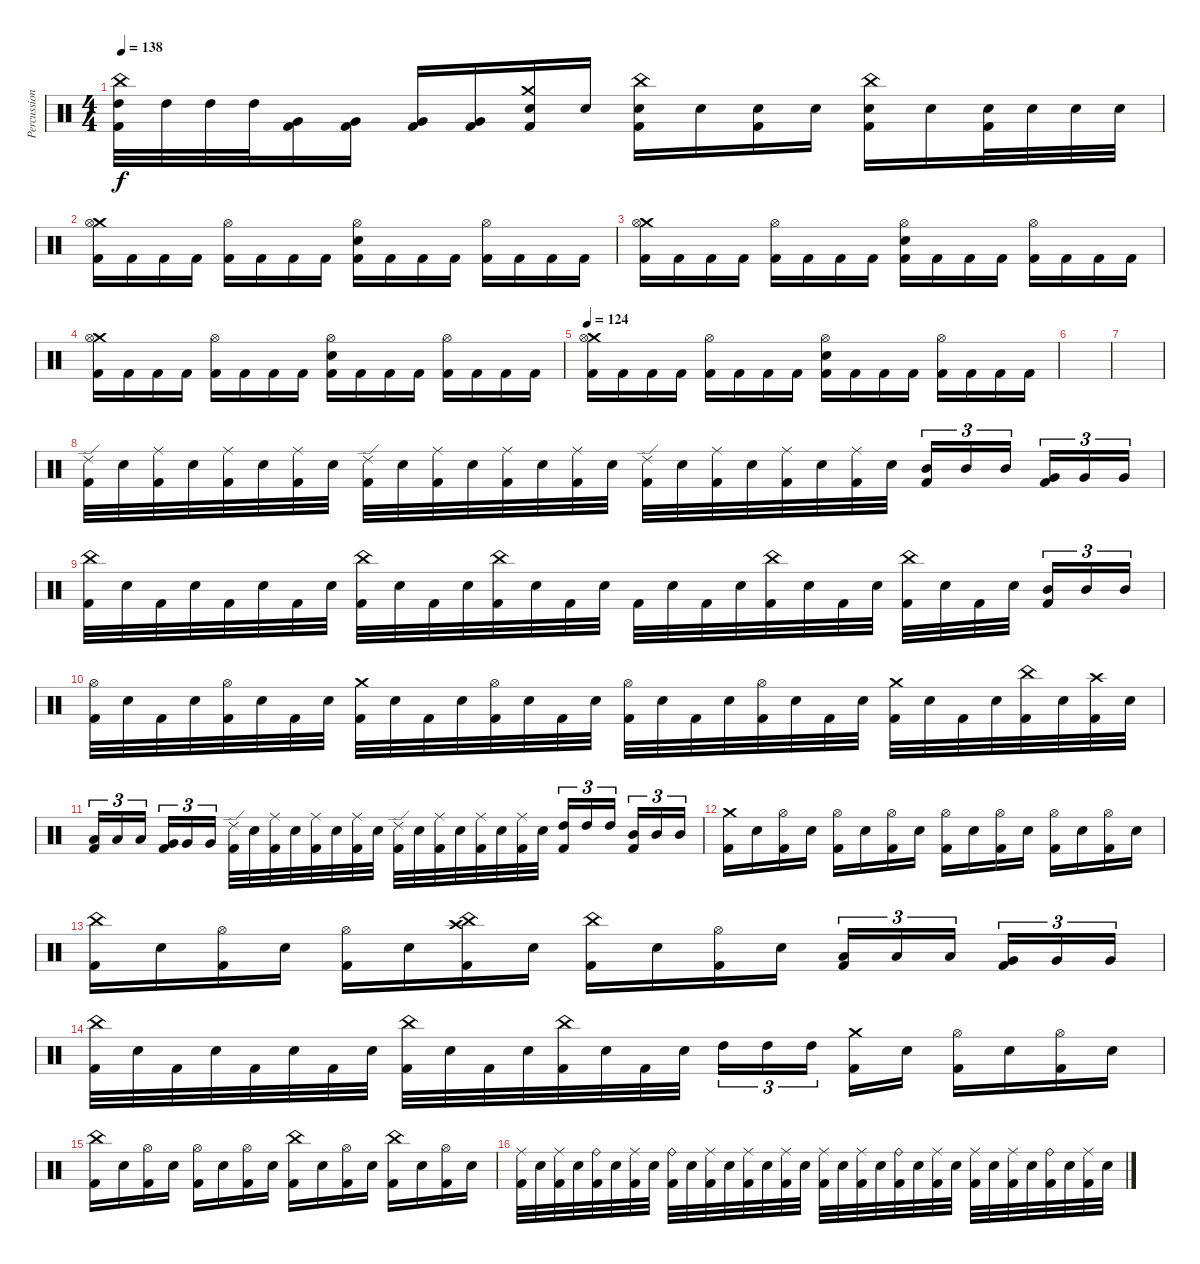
\track ("Percussion" "Percussion") {instrument percussion}
\staff {score}
\articulation defaults
\ts (4 4)
\tempo 138
\clef neutral
\ks c
("China (hit)" "High Tom (hit)" "Kick (hit) 2").32{dy f} "High Tom (hit)".32 "High Tom (hit)".32 "High Tom (hit)".32 ("Very Low Tom (hit)" "Kick (hit) 2").16 ("Very Low Tom (hit)" "Kick (hit) 2").16 ("Very Low Tom (hit)" "Kick (hit) 2").16 ("Very Low Tom (hit)" "Kick (hit) 2").16 ("Crash medium (hit)" "Electric Snare (hit)" "Kick (hit) 2").16 "Electric Snare (hit)".16 ("China (hit)" "Electric Snare (hit)" "Kick (hit) 2").16 "Electric Snare (hit)".16 ("Electric Snare (hit)" "Kick (hit) 2").16 "Electric Snare (hit)".16 ("China (hit)" "Electric Snare (hit)" "Kick (hit) 2").16 "Electric Snare (hit)".16 ("Electric Snare (hit)" "Kick (hit) 2").32 "Electric Snare (hit)".32 "Electric Snare (hit)".32 "Electric Snare (hit)".32 |
("Crash medium (hit)" "Hi-Hat (open)" "Kick (hit) 2").16 "Kick (hit) 2".16 "Kick (hit) 2".16 "Kick (hit) 2".16 ("Hi-Hat (open)" "Kick (hit) 2").16 "Kick (hit) 2".16 "Kick (hit) 2".16 "Kick (hit) 2".16 ("Hi-Hat (open)" "Electric Snare (hit)" "Kick (hit) 2").16 "Kick (hit) 2".16 "Kick (hit) 2".16 "Kick (hit) 2".16 ("Hi-Hat (open)" "Kick (hit) 2").16 "Kick (hit) 2".16 "Kick (hit) 2".16 "Kick (hit) 2".16 |
("Crash medium (hit)" "Hi-Hat (open)" "Kick (hit) 2").16 "Kick (hit) 2".16 "Kick (hit) 2".16 "Kick (hit) 2".16 ("Hi-Hat (open)" "Kick (hit) 2").16 "Kick (hit) 2".16 "Kick (hit) 2".16 "Kick (hit) 2".16 ("Hi-Hat (open)" "Electric Snare (hit)" "Kick (hit) 2").16 "Kick (hit) 2".16 "Kick (hit) 2".16 "Kick (hit) 2".16 ("Hi-Hat (open)" "Kick (hit) 2").16 "Kick (hit) 2".16 "Kick (hit) 2".16 "Kick (hit) 2".16 |
("Crash medium (hit)" "Hi-Hat (open)" "Kick (hit) 2").16 "Kick (hit) 2".16 "Kick (hit) 2".16 "Kick (hit) 2".16 ("Hi-Hat (open)" "Kick (hit) 2").16 "Kick (hit) 2".16 "Kick (hit) 2".16 "Kick (hit) 2".16 ("Hi-Hat (open)" "Electric Snare (hit)" "Kick (hit) 2").16 "Kick (hit) 2".16 "Kick (hit) 2".16 "Kick (hit) 2".16 ("Hi-Hat (open)" "Kick (hit) 2").16 "Kick (hit) 2".16 "Kick (hit) 2".16 "Kick (hit) 2".16 |
\tempo 124
("Crash medium (hit)" "Hi-Hat (open)" "Kick (hit) 2").16 "Kick (hit) 2".16 "Kick (hit) 2".16 "Kick (hit) 2".16 ("Hi-Hat (open)" "Kick (hit) 2").16 "Kick (hit) 2".16 "Kick (hit) 2".16 "Kick (hit) 2".16 ("Hi-Hat (open)" "Electric Snare (hit)" "Kick (hit) 2").16 "Kick (hit) 2".16 "Kick (hit) 2".16 "Kick (hit) 2".16 ("Hi-Hat (open)" "Kick (hit) 2").16 "Kick (hit) 2".16 "Kick (hit) 2".16 "Kick (hit) 2".16 |
|
|
("Ride (edge) 2" "Kick (hit) 2").32 "Electric Snare (hit)".32 ("Ride (middle)" "Kick (hit) 2").32 "Electric Snare (hit)".32 ("Ride (middle)" "Kick (hit) 2").32 "Electric Snare (hit)".32 ("Ride (middle)" "Kick (hit) 2").32 "Electric Snare (hit)".32 ("Ride (edge) 2" "Kick (hit) 2").32 "Electric Snare (hit)".32 ("Ride (middle)" "Kick (hit) 2").32 "Electric Snare (hit)".32 ("Ride (middle)" "Kick (hit) 2").32 "Electric Snare (hit)".32 ("Ride (middle)" "Kick (hit) 2").32 "Electric Snare (hit)".32 ("Ride (edge) 2" "Kick (hit) 2").32 "Electric Snare (hit)".32 ("Ride (middle)" "Kick (hit) 2").32 "Electric Snare (hit)".32 ("Ride (middle)" "Kick (hit) 2").32 "Electric Snare (hit)".32 ("Ride (middle)" "Kick (hit) 2").32 "Electric Snare (hit)".32 ("Mid Tom (hit)" "Kick (hit) 2").16{tu (3 2)} "Mid Tom (hit)".16{tu (3 2)} "Mid Tom (hit)".16{tu (3 2) beam splitsecondary} ("Very Low Tom (hit)" "Kick (hit) 2").16{tu (3 2)} "Very Low Tom (hit)".16{tu (3 2)} "Very Low Tom (hit)".16{tu (3 2)} |
("China (hit)" "Kick (hit) 2").32 "Electric Snare (hit)".32 "Kick (hit) 2".32 "Electric Snare (hit)".32 "Kick (hit) 2".32 "Electric Snare (hit)".32 "Kick (hit) 2".32 "Electric Snare (hit)".32 ("China (hit)" "Kick (hit) 2").32 "Electric Snare (hit)".32 "Kick (hit) 2".32 "Electric Snare (hit)".32 ("China (hit)" "Kick (hit) 2").32 "Electric Snare (hit)".32 "Kick (hit) 2".32 "Electric Snare (hit)".32 "Kick (hit) 2".32 "Electric Snare (hit)".32 "Kick (hit) 2".32 "Electric Snare (hit)".32 ("China (hit)" "Kick (hit) 2").32 "Electric Snare (hit)".32 "Kick (hit) 2".32 "Electric Snare (hit)".32 ("China (hit)" "Kick (hit) 2").32 "Electric Snare (hit)".32 "Kick (hit) 2".32 "Electric Snare (hit)".32{beam splitsecondary} ("Mid Tom (hit)" "Kick (hit) 2").16{tu (3 2)} "Mid Tom (hit)".16{tu (3 2)} "Mid Tom (hit)".16{tu (3 2)} |
("Hi-Hat (open)" "Kick (hit) 2").32 "Electric Snare (hit)".32 "Kick (hit) 2".32 "Electric Snare (hit)".32 ("Hi-Hat (open)" "Kick (hit) 2").32 "Electric Snare (hit)".32 "Kick (hit) 2".32 "Electric Snare (hit)".32 ("Crash medium (hit)" "Kick (hit) 2").32 "Electric Snare (hit)".32 "Kick (hit) 2".32 "Electric Snare (hit)".32 ("Hi-Hat (open)" "Kick (hit) 2").32 "Electric Snare (hit)".32 "Kick (hit) 2".32 "Electric Snare (hit)".32 ("Hi-Hat (open)" "Kick (hit) 2").32 "Electric Snare (hit)".32 "Kick (hit) 2".32 "Electric Snare (hit)".32 ("Hi-Hat (open)" "Kick (hit) 2").32 "Electric Snare (hit)".32 "Kick (hit) 2".32 "Electric Snare (hit)".32 ("Crash medium (hit)" "Kick (hit) 2").32 "Electric Snare (hit)".32 "Kick (hit) 2".32 "Electric Snare (hit)".32 ("China (hit)" "Kick (hit) 2").32 "Electric Snare (hit)".32 ("Crash high (hit)" "Kick (hit) 2").32 "Electric Snare (hit)".32 |
("Low Tom (hit)" "Kick (hit) 2").16{tu (3 2)} "Low Tom (hit)".16{tu (3 2)} "Low Tom (hit)".16{tu (3 2) beam splitsecondary} ("Very Low Tom (hit)" "Kick (hit) 2").16{tu (3 2)} "Very Low Tom (hit)".16{tu (3 2)} "Very Low Tom (hit)".16{tu (3 2)} ("Ride (edge) 2" "Kick (hit) 2").32 "Electric Snare (hit)".32 ("Ride (middle)" "Kick (hit) 2").32 "Electric Snare (hit)".32 ("Ride (middle)" "Kick (hit) 2").32 "Electric Snare (hit)".32 ("Ride (middle)" "Kick (hit) 2").32 "Electric Snare (hit)".32 ("Ride (edge) 2" "Kick (hit) 2").32 "Electric Snare (hit)".32 ("Ride (middle)" "Kick (hit) 2").32 "Electric Snare (hit)".32 ("Ride (middle)" "Kick (hit) 2").32 "Electric Snare (hit)".32 ("Ride (middle)" "Kick (hit) 2").32 "Electric Snare (hit)".32 ("High Tom (hit)" "Kick (hit) 2").16{tu (3 2)} "High Tom (hit)".16{tu (3 2)} "High Tom (hit)".16{tu (3 2) beam splitsecondary} ("Mid Tom (hit)" "Kick (hit) 2").16{tu (3 2)} "Mid Tom (hit)".16{tu (3 2)} "Mid Tom (hit)".16{tu (3 2)} |
("Crash medium (hit)" "Kick (hit) 2").16 "Electric Snare (hit)".16 ("Hi-Hat (open)" "Kick (hit) 2").16 "Electric Snare (hit)".16 ("Hi-Hat (open)" "Kick (hit) 2").16 "Electric Snare (hit)".16 ("Hi-Hat (open)" "Kick (hit) 2").16 "Electric Snare (hit)".16 ("Hi-Hat (open)" "Kick (hit) 2").16 "Electric Snare (hit)".16 ("Hi-Hat (open)" "Kick (hit) 2").16 "Electric Snare (hit)".16 ("Hi-Hat (open)" "Kick (hit) 2").16 "Electric Snare (hit)".16 ("Hi-Hat (open)" "Kick (hit) 2").16 "Electric Snare (hit)".16 |
("China (hit)" "Kick (hit) 2").16 "Electric Snare (hit)".16 ("Hi-Hat (open)" "Kick (hit) 2").16 "Electric Snare (hit)".16 ("Hi-Hat (open)" "Kick (hit) 2").16 "Electric Snare (hit)".16 ("Crash high (hit)" "China (hit)" "Kick (hit) 2").16 "Electric Snare (hit)".16 ("China (hit)" "Kick (hit) 2").16 "Electric Snare (hit)".16 ("Hi-Hat (open)" "Kick (hit) 2").16 "Electric Snare (hit)".16 ("Low Tom (hit)" "Kick (hit) 2").16{tu (3 2)} "Low Tom (hit)".16{tu (3 2)} "Low Tom (hit)".16{tu (3 2) beam splitsecondary} ("Very Low Tom (hit)" "Kick (hit) 2").16{tu (3 2)} "Very Low Tom (hit)".16{tu (3 2)} "Very Low Tom (hit)".16{tu (3 2)} |
("China (hit)" "Kick (hit) 2").32 "Electric Snare (hit)".32 "Kick (hit) 2".32 "Electric Snare (hit)".32 "Kick (hit) 2".32 "Electric Snare (hit)".32 "Kick (hit) 2".32 "Electric Snare (hit)".32 ("China (hit)" "Kick (hit) 2").32 "Electric Snare (hit)".32 "Kick (hit) 2".32 "Electric Snare (hit)".32 ("China (hit)" "Kick (hit) 2").32 "Electric Snare (hit)".32 "Kick (hit) 2".32 "Electric Snare (hit)".32 "High Tom (hit)".16{tu (3 2)} "High Tom (hit)".16{tu (3 2)} "High Tom (hit)".16{tu (3 2) beam splitsecondary} ("Crash medium (hit)" "Kick (hit) 2").16 "Electric Snare (hit)".16 ("Hi-Hat (open)" "Kick (hit) 2").16 "Electric Snare (hit)".16 ("Hi-Hat (open)" "Kick (hit) 2").16 "Electric Snare (hit)".16 |
("China (hit)" "Kick (hit) 2").16 "Electric Snare (hit)".16 ("Hi-Hat (open)" "Kick (hit) 2").16 "Electric Snare (hit)".16 ("Hi-Hat (open)" "Kick (hit) 2").16 "Electric Snare (hit)".16 ("Hi-Hat (open)" "Kick (hit) 2").16 "Electric Snare (hit)".16 ("China (hit)" "Kick (hit) 2").16 "Electric Snare (hit)".16 ("Hi-Hat (open)" "Kick (hit) 2").16 "Electric Snare (hit)".16 ("China (hit)" "Kick (hit) 2").16 "Electric Snare (hit)".16 ("Hi-Hat (open)" "Kick (hit) 2").16 "Electric Snare (hit)".16 |
("Ride (middle)" "Kick (hit) 2").32 "Electric Snare (hit)".32 ("Ride (middle)" "Kick (hit) 2").32 "Electric Snare (hit)".32 ("Ride (bell)" "Kick (hit) 2").32 "Electric Snare (hit)".32 ("Ride (middle)" "Kick (hit) 2").32 "Electric Snare (hit)".32 ("Ride (bell)" "Kick (hit) 2").32 "Electric Snare (hit)".32 ("Ride (middle)" "Kick (hit) 2").32 "Electric Snare (hit)".32 ("Ride (middle)" "Kick (hit) 2").32 "Electric Snare (hit)".32 ("Ride (middle)" "Kick (hit) 2").32 "Electric Snare (hit)".32 ("Ride (middle)" "Kick (hit) 2").32 "Electric Snare (hit)".32 ("Ride (middle)" "Kick (hit) 2").32 "Electric Snare (hit)".32 ("Ride (bell)" "Kick (hit) 2").32 "Electric Snare (hit)".32 ("Ride (middle)" "Kick (hit) 2").32 "Electric Snare (hit)".32 ("Ride (middle)" "Kick (hit) 2").32 "Electric Snare (hit)".32 ("Ride (middle)" "Kick (hit) 2").32 "Electric Snare (hit)".32 ("Ride (bell)" "Kick (hit) 2").32 "Electric Snare (hit)".32 ("Ride (middle)" "Kick (hit) 2").32 "Electric Snare (hit)".32
